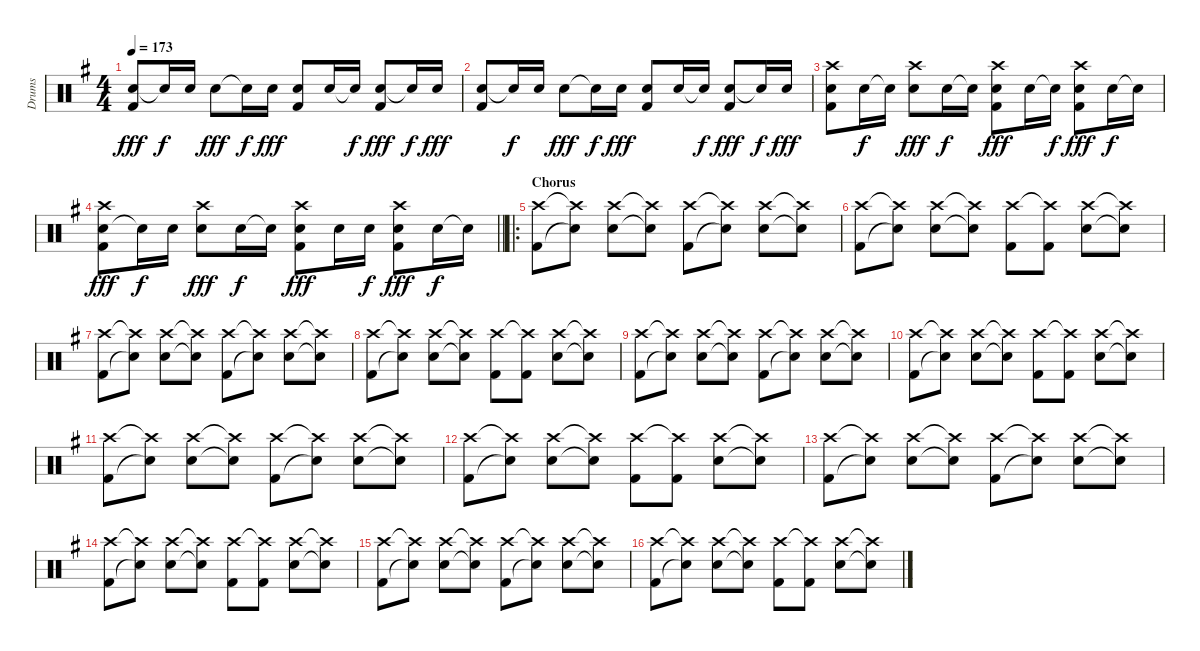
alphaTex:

\track ("Drums" "Drums") {instrument percussion}
\staff {score}
\articulation defaults
\ts (4 4)
\tempo 173
\clef neutral
\ks g
("Snare (hit) 2" "Kick (hit) 2").8{dy fff} "Snare (hit) 2"{t}.16{dy f} "Snare (hit) 2".16 "Snare (hit) 2".8{dy fff} "Snare (hit) 2"{t}.16{dy f} "Snare (hit) 2".16{dy fff} ("Snare (hit) 2" "Kick (hit) 2").8 "Snare (hit) 2".16 "Snare (hit)"{t}.16{dy f} ("Snare (hit) 2" "Kick (hit) 2").8{dy fff} "Snare (hit)"{t}.16{dy f} "Snare (hit) 2".16{dy fff} |
("Snare (hit) 2" "Kick (hit) 2").8 "Snare (hit) 2"{t}.16{dy f} "Snare (hit) 2".16 "Snare (hit) 2".8{dy fff} "Snare (hit) 2"{t}.16{dy f} "Snare (hit) 2".16{dy fff} ("Snare (hit) 2" "Kick (hit) 2").8 "Snare (hit) 2".16 "Snare (hit)"{t}.16{dy f} ("Snare (hit) 2" "Kick (hit) 2").8{dy fff} "Snare (hit)"{t}.16{dy f} "Snare (hit) 2".16{dy fff} |
("Snare (hit) 2" "Kick (hit) 2" "Crash high (hit)").8 "Snare (hit) 2".16{dy f} "Snare (hit) 2"{t}.16 ("Snare (hit) 2" "Crash high (hit)").8{dy fff} "Snare (hit) 2".16{dy f} "Snare (hit) 2"{t}.16 ("Snare (hit) 2" "Kick (hit) 2" "Crash high (hit)").8{dy fff} "Snare (hit) 2".16 "Snare (hit) 2"{t}.16{dy f} ("Snare (hit) 2" "Kick (hit) 2" "Crash high (hit)").8{dy fff} "Snare (hit) 2".16{dy f} "Snare (hit) 2"{t}.16 |
\barLineRight lightlight
("Snare (hit) 2" "Kick (hit) 2" "Crash high (hit)").8{dy fff} "Snare (hit) 2"{t}.16{dy f} "Snare (hit) 2".16 ("Snare (hit) 2" "Crash high (hit)").8{dy fff} "Snare (hit) 2".16{dy f} "Snare (hit) 2"{t}.16 ("Snare (hit) 2" "Kick (hit) 2" "Crash high (hit)").8{dy fff} "Snare (hit) 2".16 "Snare (hit) 2".16{dy f} ("Snare (hit) 2" "Kick (hit) 2" "Crash high (hit)").8{dy fff} "Snare (hit) 2".16{dy f} "Snare (hit) 2"{t}.16 |
\ro
\section ("" "Chorus")
("Kick (hit) 2" "Crash high (hit)").8 ("Snare (hit)"{t} "Crash high (hit)"{t}).8 ("Snare (hit) 2" "Crash high (hit)").8 ("Snare (hit)"{t} "Crash high (hit)"{t}).8 ("Kick (hit) 2" "Crash high (hit)").8 ("Snare (hit)"{t} "Crash high (hit)"{t}).8 ("Snare (hit) 2" "Crash high (hit)").8 ("Snare (hit)"{t} "Crash high (hit)"{t}).8 |
("Kick (hit) 2" "Crash high (hit)").8 ("Snare (hit)"{t} "Crash high (hit)"{t}).8 ("Snare (hit) 2" "Crash high (hit)").8 ("Snare (hit)"{t} "Crash high (hit)"{t}).8 ("Kick (hit) 2" "Crash high (hit)").8 ("Kick (hit) 2" "Crash high (hit)"{t}).8 ("Snare (hit) 2" "Crash high (hit)").8 ("Snare (hit)"{t} "Crash high (hit)"{t}).8 |
("Kick (hit) 2" "Crash high (hit)").8 ("Snare (hit)"{t} "Crash high (hit)"{t}).8 ("Snare (hit) 2" "Crash high (hit)").8 ("Snare (hit)"{t} "Crash high (hit)"{t}).8 ("Kick (hit) 2" "Crash high (hit)").8 ("Snare (hit)"{t} "Crash high (hit)"{t}).8 ("Snare (hit) 2" "Crash high (hit)").8 ("Snare (hit)"{t} "Crash high (hit)"{t}).8 |
("Kick (hit) 2" "Crash high (hit)").8 ("Snare (hit)"{t} "Crash high (hit)"{t}).8 ("Snare (hit) 2" "Crash high (hit)").8 ("Snare (hit)"{t} "Crash high (hit)"{t}).8 ("Kick (hit) 2" "Crash high (hit)").8 ("Kick (hit) 2" "Crash high (hit)"{t}).8 ("Snare (hit) 2" "Crash high (hit)").8 ("Snare (hit)"{t} "Crash high (hit)"{t}).8 |
("Kick (hit) 2" "Crash high (hit)").8 ("Snare (hit)"{t} "Crash high (hit)"{t}).8 ("Snare (hit) 2" "Crash high (hit)").8 ("Snare (hit)"{t} "Crash high (hit)"{t}).8 ("Kick (hit) 2" "Crash high (hit)").8 ("Snare (hit)"{t} "Crash high (hit)"{t}).8 ("Snare (hit) 2" "Crash high (hit)").8 ("Snare (hit)"{t} "Crash high (hit)"{t}).8 |
("Kick (hit) 2" "Crash high (hit)").8 ("Snare (hit)"{t} "Crash high (hit)"{t}).8 ("Snare (hit) 2" "Crash high (hit)").8 ("Snare (hit)"{t} "Crash high (hit)"{t}).8 ("Kick (hit) 2" "Crash high (hit)").8 ("Kick (hit) 2" "Crash high (hit)"{t}).8 ("Snare (hit) 2" "Crash high (hit)").8 ("Snare (hit)"{t} "Crash high (hit)"{t}).8 |
("Kick (hit) 2" "Crash high (hit)").8 ("Snare (hit)"{t} "Crash high (hit)"{t}).8 ("Snare (hit) 2" "Crash high (hit)").8 ("Snare (hit)"{t} "Crash high (hit)"{t}).8 ("Kick (hit) 2" "Crash high (hit)").8 ("Snare (hit)"{t} "Crash high (hit)"{t}).8 ("Snare (hit) 2" "Crash high (hit)").8 ("Snare (hit)"{t} "Crash high (hit)"{t}).8 |
("Kick (hit) 2" "Crash high (hit)").8 ("Snare (hit)"{t} "Crash high (hit)"{t}).8 ("Snare (hit) 2" "Crash high (hit)").8 ("Snare (hit)"{t} "Crash high (hit)"{t}).8 ("Kick (hit) 2" "Crash high (hit)").8 ("Kick (hit) 2" "Crash high (hit)"{t}).8 ("Snare (hit) 2" "Crash high (hit)").8 ("Snare (hit)"{t} "Crash high (hit)"{t}).8 |
("Kick (hit) 2" "Crash high (hit)").8 ("Snare (hit)"{t} "Crash high (hit)"{t}).8 ("Snare (hit) 2" "Crash high (hit)").8 ("Snare (hit)"{t} "Crash high (hit)"{t}).8 ("Kick (hit) 2" "Crash high (hit)").8 ("Snare (hit)"{t} "Crash high (hit)"{t}).8 ("Snare (hit) 2" "Crash high (hit)").8 ("Snare (hit)"{t} "Crash high (hit)"{t}).8 |
("Kick (hit) 2" "Crash high (hit)").8 ("Snare (hit)"{t} "Crash high (hit)"{t}).8 ("Snare (hit) 2" "Crash high (hit)").8 ("Snare (hit)"{t} "Crash high (hit)"{t}).8 ("Kick (hit) 2" "Crash high (hit)").8 ("Kick (hit) 2" "Crash high (hit)"{t}).8 ("Snare (hit) 2" "Crash high (hit)").8 ("Snare (hit)"{t} "Crash high (hit)"{t}).8 |
("Kick (hit) 2" "Crash high (hit)").8 ("Snare (hit)"{t} "Crash high (hit)"{t}).8 ("Snare (hit) 2" "Crash high (hit)").8 ("Snare (hit)"{t} "Crash high (hit)"{t}).8 ("Kick (hit) 2" "Crash high (hit)").8 ("Snare (hit)"{t} "Crash high (hit)"{t}).8 ("Snare (hit) 2" "Crash high (hit)").8 ("Snare (hit)"{t} "Crash high (hit)"{t}).8 |
("Kick (hit) 2" "Crash high (hit)").8 ("Snare (hit)"{t} "Crash high (hit)"{t}).8 ("Snare (hit) 2" "Crash high (hit)").8 ("Snare (hit)"{t} "Crash high (hit)"{t}).8 ("Kick (hit) 2" "Crash high (hit)").8 ("Kick (hit) 2" "Crash high (hit)"{t}).8 ("Snare (hit) 2" "Crash high (hit)").8 ("Snare (hit)"{t} "Crash high (hit)"{t}).8
